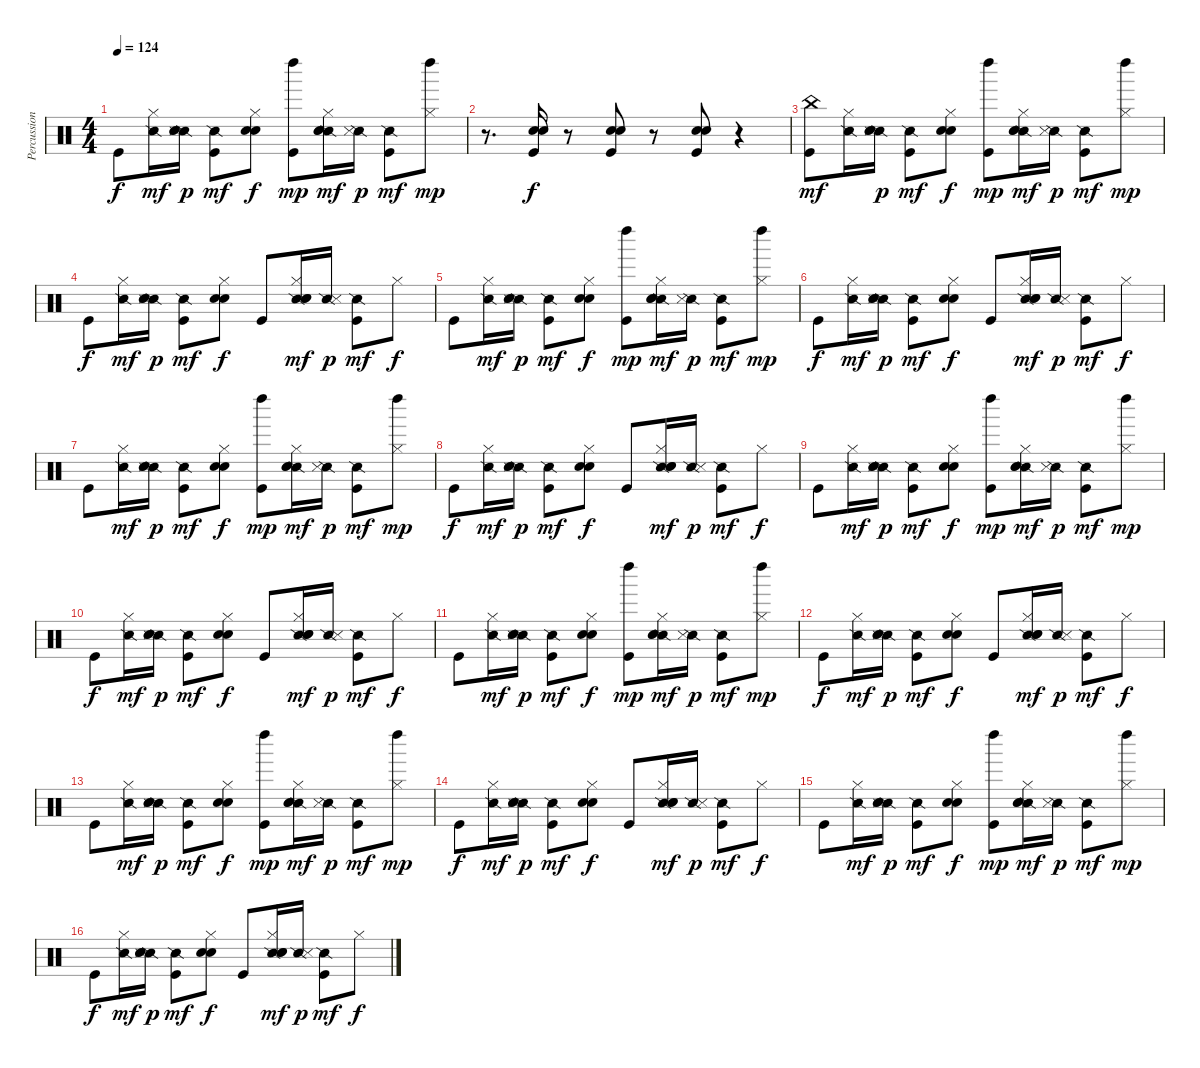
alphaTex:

\track ("Percussion" "Percussion") {instrument percussion}
\staff {score}
\articulation defaults
\ts (4 4)
\tempo 124
\clef neutral
\ks c "Kick (hit)".8{dy f}
("Snare (side stick) 2" "Hi-Hat (closed)").16{dy mf} ("Snare (side stick) 2" "Snare (side stick) 3" "Snare (hit) 2" "Hand Clap (hit)").16{dy p} ("Snare (side stick) 2" "Kick (hit)").8{dy mf} ("Hi-Hat (closed)" "Snare (hit) 2" "Hand Clap (hit)").8{dy f} ("Left Maraca (hit)" "Kick (hit)").8{dy mp} ("Snare (side stick) 2" "Hi-Hat (closed)" "Snare (hit) 2" "Hand Clap (hit)").16{dy mf} ("Snare (side stick) 2" "Snare (side stick) 3").16{dy p} ("Snare (side stick) 2" "Kick (hit)").8{dy mf} ("Left Maraca (hit)" "Hi-Hat (closed)").8{dy mp} |
r.8{d} ("Snare (hit) 2" "Hand Clap (hit)" "Kick (hit)").16{dy f} r.8 ("Snare (hit) 2" "Hand Clap (hit)" "Kick (hit)").8 r.8 ("Snare (hit) 2" "Hand Clap (hit)" "Kick (hit)").8 r.4 |
("China (hit)" "Kick (hit)").8{dy mf} ("Snare (side stick) 2" "Hi-Hat (closed)").16 ("Snare (side stick) 2" "Snare (side stick) 3" "Snare (hit) 2" "Hand Clap (hit)").16{dy p} ("Snare (side stick) 2" "Kick (hit)").8{dy mf} ("Hi-Hat (closed)" "Snare (hit) 2" "Hand Clap (hit)").8{dy f} ("Left Maraca (hit)" "Kick (hit)").8{dy mp} ("Snare (side stick) 2" "Hi-Hat (closed)" "Snare (hit) 2" "Hand Clap (hit)").16{dy mf} ("Snare (side stick) 2" "Snare (side stick) 3").16{dy p} ("Snare (side stick) 2" "Kick (hit)").8{dy mf} ("Left Maraca (hit)" "Hi-Hat (closed)").8{dy mp} |
"Kick (hit)".8{dy f} ("Snare (side stick) 2" "Hi-Hat (closed)").16{dy mf} ("Snare (side stick) 2" "Snare (side stick) 3" "Snare (hit) 2" "Hand Clap (hit)").16{dy p} ("Snare (side stick) 2" "Kick (hit)").8{dy mf} ("Hi-Hat (closed)" "Snare (hit) 2" "Hand Clap (hit)").8{dy f} "Kick (hit)".8 ("Snare (side stick) 2" "Hi-Hat (closed)" "Snare (hit) 2" "Hand Clap (hit)").16{dy mf} ("Snare (side stick) 2" "Snare (side stick) 3").16{dy p} ("Snare (side stick) 2" "Kick (hit)").8{dy mf} "Hi-Hat (closed)".8{dy f} |
"Kick (hit)".8 ("Snare (side stick) 2" "Hi-Hat (closed)").16{dy mf} ("Snare (side stick) 2" "Snare (side stick) 3" "Snare (hit) 2" "Hand Clap (hit)").16{dy p} ("Snare (side stick) 2" "Kick (hit)").8{dy mf} ("Hi-Hat (closed)" "Snare (hit) 2" "Hand Clap (hit)").8{dy f} ("Left Maraca (hit)" "Kick (hit)").8{dy mp} ("Snare (side stick) 2" "Hi-Hat (closed)" "Snare (hit) 2" "Hand Clap (hit)").16{dy mf} ("Snare (side stick) 2" "Snare (side stick) 3").16{dy p} ("Snare (side stick) 2" "Kick (hit)").8{dy mf} ("Left Maraca (hit)" "Hi-Hat (closed)").8{dy mp} |
"Kick (hit)".8{dy f} ("Snare (side stick) 2" "Hi-Hat (closed)").16{dy mf} ("Snare (side stick) 2" "Snare (side stick) 3" "Snare (hit) 2" "Hand Clap (hit)").16{dy p} ("Snare (side stick) 2" "Kick (hit)").8{dy mf} ("Hi-Hat (closed)" "Snare (hit) 2" "Hand Clap (hit)").8{dy f} "Kick (hit)".8 ("Snare (side stick) 2" "Hi-Hat (closed)" "Snare (hit) 2" "Hand Clap (hit)").16{dy mf} ("Snare (side stick) 2" "Snare (side stick) 3").16{dy p} ("Snare (side stick) 2" "Kick (hit)").8{dy mf} "Hi-Hat (closed)".8{dy f} |
"Kick (hit)".8 ("Snare (side stick) 2" "Hi-Hat (closed)").16{dy mf} ("Snare (side stick) 2" "Snare (side stick) 3" "Snare (hit) 2" "Hand Clap (hit)").16{dy p} ("Snare (side stick) 2" "Kick (hit)").8{dy mf} ("Hi-Hat (closed)" "Snare (hit) 2" "Hand Clap (hit)").8{dy f} ("Left Maraca (hit)" "Kick (hit)").8{dy mp} ("Snare (side stick) 2" "Hi-Hat (closed)" "Snare (hit) 2" "Hand Clap (hit)").16{dy mf} ("Snare (side stick) 2" "Snare (side stick) 3").16{dy p} ("Snare (side stick) 2" "Kick (hit)").8{dy mf} ("Left Maraca (hit)" "Hi-Hat (closed)").8{dy mp} |
"Kick (hit)".8{dy f} ("Snare (side stick) 2" "Hi-Hat (closed)").16{dy mf} ("Snare (side stick) 2" "Snare (side stick) 3" "Snare (hit) 2" "Hand Clap (hit)").16{dy p} ("Snare (side stick) 2" "Kick (hit)").8{dy mf} ("Hi-Hat (closed)" "Snare (hit) 2" "Hand Clap (hit)").8{dy f} "Kick (hit)".8 ("Snare (side stick) 2" "Hi-Hat (closed)" "Snare (hit) 2" "Hand Clap (hit)").16{dy mf} ("Snare (side stick) 2" "Snare (side stick) 3").16{dy p} ("Snare (side stick) 2" "Kick (hit)").8{dy mf} "Hi-Hat (closed)".8{dy f} |
"Kick (hit)".8 ("Snare (side stick) 2" "Hi-Hat (closed)").16{dy mf} ("Snare (side stick) 2" "Snare (side stick) 3" "Snare (hit) 2" "Hand Clap (hit)").16{dy p} ("Snare (side stick) 2" "Kick (hit)").8{dy mf} ("Hi-Hat (closed)" "Snare (hit) 2" "Hand Clap (hit)").8{dy f} ("Left Maraca (hit)" "Kick (hit)").8{dy mp} ("Snare (side stick) 2" "Hi-Hat (closed)" "Snare (hit) 2" "Hand Clap (hit)").16{dy mf} ("Snare (side stick) 2" "Snare (side stick) 3").16{dy p} ("Snare (side stick) 2" "Kick (hit)").8{dy mf} ("Left Maraca (hit)" "Hi-Hat (closed)").8{dy mp} |
"Kick (hit)".8{dy f} ("Snare (side stick) 2" "Hi-Hat (closed)").16{dy mf} ("Snare (side stick) 2" "Snare (side stick) 3" "Snare (hit) 2" "Hand Clap (hit)").16{dy p} ("Snare (side stick) 2" "Kick (hit)").8{dy mf} ("Hi-Hat (closed)" "Snare (hit) 2" "Hand Clap (hit)").8{dy f} "Kick (hit)".8 ("Snare (side stick) 2" "Hi-Hat (closed)" "Snare (hit) 2" "Hand Clap (hit)").16{dy mf} ("Snare (side stick) 2" "Snare (side stick) 3").16{dy p} ("Snare (side stick) 2" "Kick (hit)").8{dy mf} "Hi-Hat (closed)".8{dy f} |
"Kick (hit)".8 ("Snare (side stick) 2" "Hi-Hat (closed)").16{dy mf} ("Snare (side stick) 2" "Snare (side stick) 3" "Snare (hit) 2" "Hand Clap (hit)").16{dy p} ("Snare (side stick) 2" "Kick (hit)").8{dy mf} ("Hi-Hat (closed)" "Snare (hit) 2" "Hand Clap (hit)").8{dy f} ("Left Maraca (hit)" "Kick (hit)").8{dy mp} ("Snare (side stick) 2" "Hi-Hat (closed)" "Snare (hit) 2" "Hand Clap (hit)").16{dy mf} ("Snare (side stick) 2" "Snare (side stick) 3").16{dy p} ("Snare (side stick) 2" "Kick (hit)").8{dy mf} ("Left Maraca (hit)" "Hi-Hat (closed)").8{dy mp} |
"Kick (hit)".8{dy f} ("Snare (side stick) 2" "Hi-Hat (closed)").16{dy mf} ("Snare (side stick) 2" "Snare (side stick) 3" "Snare (hit) 2" "Hand Clap (hit)").16{dy p} ("Snare (side stick) 2" "Kick (hit)").8{dy mf} ("Hi-Hat (closed)" "Snare (hit) 2" "Hand Clap (hit)").8{dy f} "Kick (hit)".8 ("Snare (side stick) 2" "Hi-Hat (closed)" "Snare (hit) 2" "Hand Clap (hit)").16{dy mf} ("Snare (side stick) 2" "Snare (side stick) 3").16{dy p} ("Snare (side stick) 2" "Kick (hit)").8{dy mf} "Hi-Hat (closed)".8{dy f} |
"Kick (hit)".8 ("Snare (side stick) 2" "Hi-Hat (closed)").16{dy mf} ("Snare (side stick) 2" "Snare (side stick) 3" "Snare (hit) 2" "Hand Clap (hit)").16{dy p} ("Snare (side stick) 2" "Kick (hit)").8{dy mf} ("Hi-Hat (closed)" "Snare (hit) 2" "Hand Clap (hit)").8{dy f} ("Left Maraca (hit)" "Kick (hit)").8{dy mp} ("Snare (side stick) 2" "Hi-Hat (closed)" "Snare (hit) 2" "Hand Clap (hit)").16{dy mf} ("Snare (side stick) 2" "Snare (side stick) 3").16{dy p} ("Snare (side stick) 2" "Kick (hit)").8{dy mf} ("Left Maraca (hit)" "Hi-Hat (closed)").8{dy mp} |
"Kick (hit)".8{dy f} ("Snare (side stick) 2" "Hi-Hat (closed)").16{dy mf} ("Snare (side stick) 2" "Snare (side stick) 3" "Snare (hit) 2" "Hand Clap (hit)").16{dy p} ("Snare (side stick) 2" "Kick (hit)").8{dy mf} ("Hi-Hat (closed)" "Snare (hit) 2" "Hand Clap (hit)").8{dy f} "Kick (hit)".8 ("Snare (side stick) 2" "Hi-Hat (closed)" "Snare (hit) 2" "Hand Clap (hit)").16{dy mf} ("Snare (side stick) 2" "Snare (side stick) 3").16{dy p} ("Snare (side stick) 2" "Kick (hit)").8{dy mf} "Hi-Hat (closed)".8{dy f} |
"Kick (hit)".8 ("Snare (side stick) 2" "Hi-Hat (closed)").16{dy mf} ("Snare (side stick) 2" "Snare (side stick) 3" "Snare (hit) 2" "Hand Clap (hit)").16{dy p} ("Snare (side stick) 2" "Kick (hit)").8{dy mf} ("Hi-Hat (closed)" "Snare (hit) 2" "Hand Clap (hit)").8{dy f} ("Left Maraca (hit)" "Kick (hit)").8{dy mp} ("Snare (side stick) 2" "Hi-Hat (closed)" "Snare (hit) 2" "Hand Clap (hit)").16{dy mf} ("Snare (side stick) 2" "Snare (side stick) 3").16{dy p} ("Snare (side stick) 2" "Kick (hit)").8{dy mf} ("Left Maraca (hit)" "Hi-Hat (closed)").8{dy mp} |
"Kick (hit)".8{dy f} ("Snare (side stick) 2" "Hi-Hat (closed)").16{dy mf} ("Snare (side stick) 2" "Snare (side stick) 3" "Snare (hit) 2" "Hand Clap (hit)").16{dy p} ("Snare (side stick) 2" "Kick (hit)").8{dy mf} ("Hi-Hat (closed)" "Snare (hit) 2" "Hand Clap (hit)").8{dy f} "Kick (hit)".8 ("Snare (side stick) 2" "Hi-Hat (closed)" "Snare (hit) 2" "Hand Clap (hit)").16{dy mf} ("Snare (side stick) 2" "Snare (side stick) 3").16{dy p} ("Snare (side stick) 2" "Kick (hit)").8{dy mf} "Hi-Hat (closed)".8{dy f}
